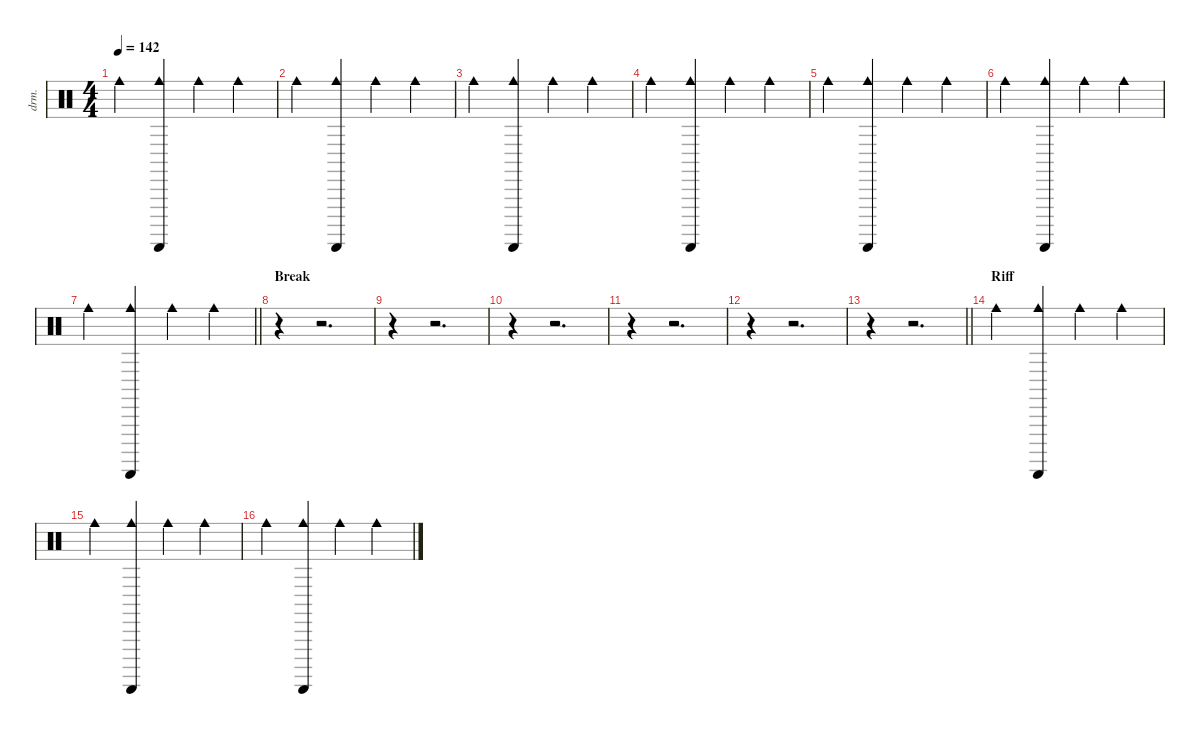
\defaultSystemsLayout 4
\hideDynamics
\bracketExtendMode nobrackets
\otherSystemsTrackNameOrientation horizontal
\track ("Percussion" "drm.") {instrument percussion}
\staff {score}
\articulation defaults
\ts (4 4)
\tempo 142
\clef neutral
\ks c "Cowbell medium (hit)".4{dy mf beam Down}
("Guiro (scrap-return)" "Cowbell medium (hit)").4{dy p beam Up} "Cowbell medium (hit)".4{dy mf beam Down} "Cowbell medium (hit)".4{beam Down} |
"Cowbell medium (hit)".4{beam Down} ("Guiro (scrap-return)" "Cowbell medium (hit)").4{dy p beam Up} "Cowbell medium (hit)".4{dy mf beam Down} "Cowbell medium (hit)".4{beam Down} |
"Cowbell medium (hit)".4{beam Down} ("Guiro (scrap-return)" "Cowbell medium (hit)").4{dy p beam Up} "Cowbell medium (hit)".4{dy mf beam Down} "Cowbell medium (hit)".4{beam Down} |
"Cowbell medium (hit)".4{beam Down} ("Guiro (scrap-return)" "Cowbell medium (hit)").4{dy p beam Up} "Cowbell medium (hit)".4{dy mf beam Down} "Cowbell medium (hit)".4{beam Down} |
"Cowbell medium (hit)".4{beam Down} ("Guiro (scrap-return)" "Cowbell medium (hit)").4{dy p beam Up} "Cowbell medium (hit)".4{dy mf beam Down} "Cowbell medium (hit)".4{beam Down} |
"Cowbell medium (hit)".4{beam Down} ("Guiro (scrap-return)" "Cowbell medium (hit)").4{dy p beam Up} "Cowbell medium (hit)".4{dy mf beam Down} "Cowbell medium (hit)".4{beam Down} |
\barLineRight lightlight "Cowbell medium (hit)".4{beam Down}
("Guiro (scrap-return)" "Cowbell medium (hit)").4{dy p beam Up} "Cowbell medium (hit)".4{dy mf beam Down} "Cowbell medium (hit)".4{beam Down} |
\section ("" "Break")
r.4{beam Down} r.2{d beam Down} |
r.4{beam Down} r.2{d beam Down} |
r.4{beam Down} r.2{d beam Down} |
r.4{beam Down} r.2{d beam Down} |
r.4{beam Down} r.2{d beam Down} |
\barLineRight lightlight
r.4{beam Down} r.2{d beam Down} |
\section ("" "Riff")
"Cowbell medium (hit)".4{beam Down} ("Guiro (scrap-return)" "Cowbell medium (hit)").4{dy p beam Up} "Cowbell medium (hit)".4{dy mf beam Down} "Cowbell medium (hit)".4{beam Down} |
"Cowbell medium (hit)".4{beam Down} ("Guiro (scrap-return)" "Cowbell medium (hit)").4{dy p beam Up} "Cowbell medium (hit)".4{dy mf beam Down} "Cowbell medium (hit)".4{beam Down} |
"Cowbell medium (hit)".4{beam Down} ("Guiro (scrap-return)" "Cowbell medium (hit)").4{dy p beam Up} "Cowbell medium (hit)".4{dy mf beam Down} "Cowbell medium (hit)".4{beam Down}
